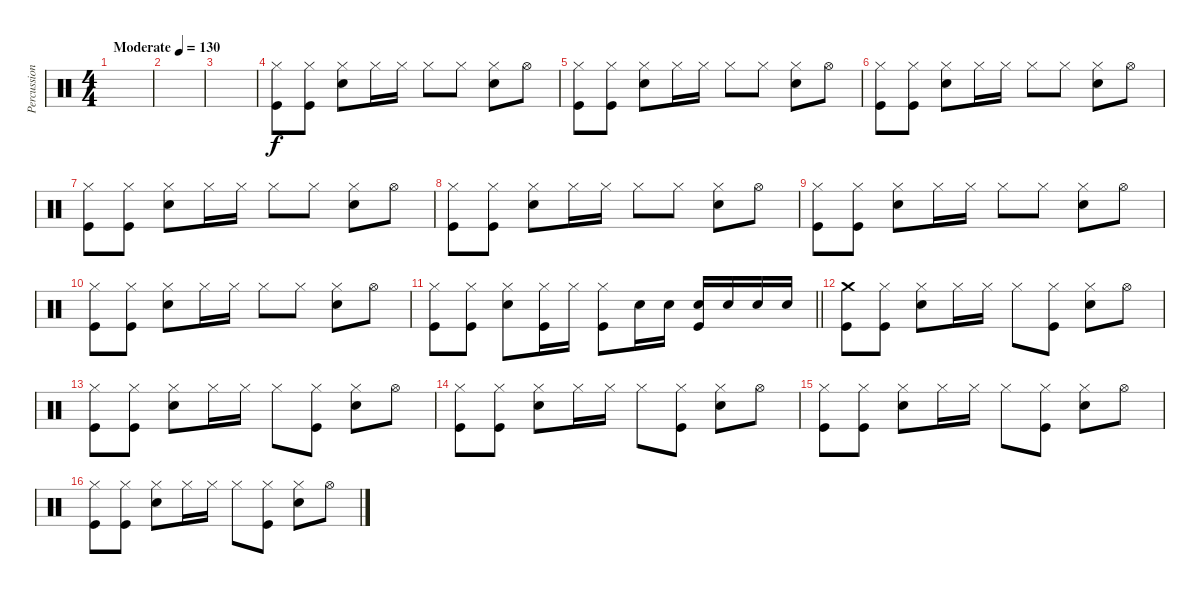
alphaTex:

\track ("Percussion" "Percussion") {instrument percussion}
\staff {score}
\articulation defaults
\ts (4 4)
\tempo (130 "Moderate")
\clef neutral
\ks c
|
|
|
("Hi-Hat (closed)" "Kick (hit)").8 ("Hi-Hat (closed)" "Kick (hit)").8 ("Hi-Hat (closed)" "Electric Snare (hit)").8 "Hi-Hat (closed)".16 "Hi-Hat (closed)".16 "Hi-Hat (closed)".8 "Hi-Hat (closed)".8 ("Hi-Hat (closed)" "Electric Snare (hit)").8 "Hi-Hat (open)".8 |
("Hi-Hat (closed)" "Kick (hit)").8 ("Hi-Hat (closed)" "Kick (hit)").8 ("Hi-Hat (closed)" "Electric Snare (hit)").8 "Hi-Hat (closed)".16 "Hi-Hat (closed)".16 "Hi-Hat (closed)".8 "Hi-Hat (closed)".8 ("Hi-Hat (closed)" "Electric Snare (hit)").8 "Hi-Hat (open)".8 |
("Hi-Hat (closed)" "Kick (hit)").8 ("Hi-Hat (closed)" "Kick (hit)").8 ("Hi-Hat (closed)" "Electric Snare (hit)").8 "Hi-Hat (closed)".16 "Hi-Hat (closed)".16 "Hi-Hat (closed)".8 "Hi-Hat (closed)".8 ("Hi-Hat (closed)" "Electric Snare (hit)").8 "Hi-Hat (open)".8 |
("Hi-Hat (closed)" "Kick (hit)").8 ("Hi-Hat (closed)" "Kick (hit)").8 ("Hi-Hat (closed)" "Electric Snare (hit)").8 "Hi-Hat (closed)".16 "Hi-Hat (closed)".16 "Hi-Hat (closed)".8 "Hi-Hat (closed)".8 ("Hi-Hat (closed)" "Electric Snare (hit)").8 "Hi-Hat (open)".8 |
("Hi-Hat (closed)" "Kick (hit)").8 ("Hi-Hat (closed)" "Kick (hit)").8 ("Hi-Hat (closed)" "Electric Snare (hit)").8 "Hi-Hat (closed)".16 "Hi-Hat (closed)".16 "Hi-Hat (closed)".8 "Hi-Hat (closed)".8 ("Hi-Hat (closed)" "Electric Snare (hit)").8 "Hi-Hat (open)".8 |
("Hi-Hat (closed)" "Kick (hit)").8 ("Hi-Hat (closed)" "Kick (hit)").8 ("Hi-Hat (closed)" "Electric Snare (hit)").8 "Hi-Hat (closed)".16 "Hi-Hat (closed)".16 "Hi-Hat (closed)".8 "Hi-Hat (closed)".8 ("Hi-Hat (closed)" "Electric Snare (hit)").8 "Hi-Hat (open)".8 |
("Hi-Hat (closed)" "Kick (hit)").8 ("Hi-Hat (closed)" "Kick (hit)").8 ("Hi-Hat (closed)" "Electric Snare (hit)").8 "Hi-Hat (closed)".16 "Hi-Hat (closed)".16 "Hi-Hat (closed)".8 "Hi-Hat (closed)".8 ("Hi-Hat (closed)" "Electric Snare (hit)").8 "Hi-Hat (open)".8 |
\barLineRight lightlight
("Hi-Hat (closed)" "Kick (hit)").8 ("Hi-Hat (closed)" "Kick (hit)").8 ("Hi-Hat (closed)" "Electric Snare (hit)").8 ("Hi-Hat (closed)" "Kick (hit)").16 "Hi-Hat (closed)".16 ("Hi-Hat (closed)" "Kick (hit)").8 "Electric Snare (hit)".16 "Electric Snare (hit)".16 ("Electric Snare (hit)" "Kick (hit)").16 "Electric Snare (hit)".16 "Electric Snare (hit)".16 "Electric Snare (hit)".16 |
("Crash medium (hit)" "Kick (hit)").8 ("Hi-Hat (closed)" "Kick (hit)").8 ("Hi-Hat (closed)" "Electric Snare (hit)").8 "Hi-Hat (closed)".16 "Hi-Hat (closed)".16 "Hi-Hat (closed)".8 ("Hi-Hat (closed)" "Kick (hit)").8 ("Hi-Hat (closed)" "Electric Snare (hit)").8 "Hi-Hat (open)".8 |
("Hi-Hat (closed)" "Kick (hit)").8 ("Hi-Hat (closed)" "Kick (hit)").8 ("Hi-Hat (closed)" "Electric Snare (hit)").8 "Hi-Hat (closed)".16 "Hi-Hat (closed)".16 "Hi-Hat (closed)".8 ("Hi-Hat (closed)" "Kick (hit)").8 ("Hi-Hat (closed)" "Electric Snare (hit)").8 "Hi-Hat (open)".8 |
("Hi-Hat (closed)" "Kick (hit)").8 ("Hi-Hat (closed)" "Kick (hit)").8 ("Hi-Hat (closed)" "Electric Snare (hit)").8 "Hi-Hat (closed)".16 "Hi-Hat (closed)".16 "Hi-Hat (closed)".8 ("Hi-Hat (closed)" "Kick (hit)").8 ("Hi-Hat (closed)" "Electric Snare (hit)").8 "Hi-Hat (open)".8 |
("Hi-Hat (closed)" "Kick (hit)").8 ("Hi-Hat (closed)" "Kick (hit)").8 ("Hi-Hat (closed)" "Electric Snare (hit)").8 "Hi-Hat (closed)".16 "Hi-Hat (closed)".16 "Hi-Hat (closed)".8 ("Hi-Hat (closed)" "Kick (hit)").8 ("Hi-Hat (closed)" "Electric Snare (hit)").8 "Hi-Hat (open)".8 |
("Hi-Hat (closed)" "Kick (hit)").8 ("Hi-Hat (closed)" "Kick (hit)").8 ("Hi-Hat (closed)" "Electric Snare (hit)").8 "Hi-Hat (closed)".16 "Hi-Hat (closed)".16 "Hi-Hat (closed)".8 ("Hi-Hat (closed)" "Kick (hit)").8 ("Hi-Hat (closed)" "Electric Snare (hit)").8 "Hi-Hat (open)".8
